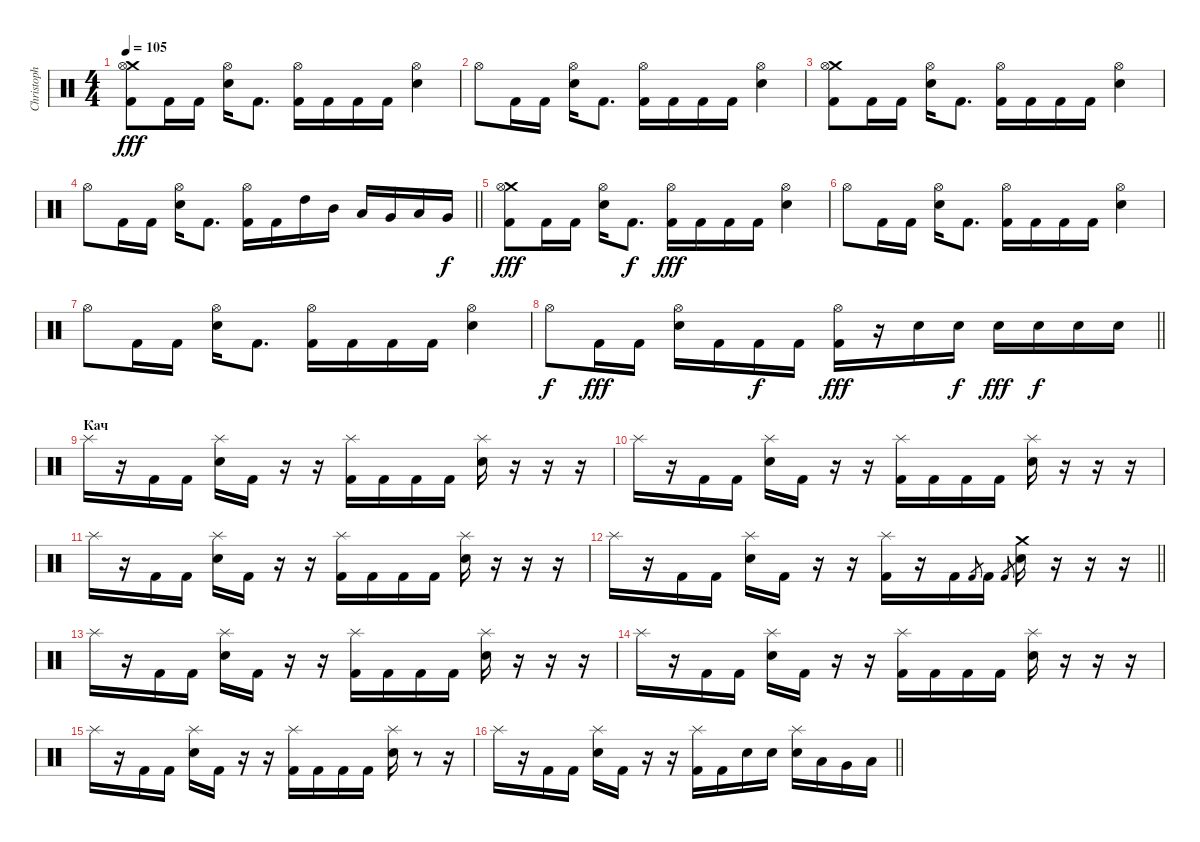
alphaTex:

\track ("Christoph Schneider" "Christoph ") {instrument percussion}
\staff {score}
\articulation defaults
\ts (4 4)
\tempo 105
\clef neutral
\ks c
("Crash medium (hit)" "Kick (hit) 2" "Hi-Hat (open)").8{dy fff} "Kick (hit) 2".16 "Kick (hit) 2".16 ("Hi-Hat (open)" "Electric Snare (hit)").16 "Kick (hit) 2".8{d} ("Hi-Hat (open)" "Kick (hit) 2").16 "Kick (hit) 2".16 "Kick (hit) 2".16 "Kick (hit) 2".16 ("Hi-Hat (open)" "Electric Snare (hit)").4 |
"Hi-Hat (open)".8 "Kick (hit) 2".16 "Kick (hit) 2".16 ("Hi-Hat (open)" "Electric Snare (hit)").16 "Kick (hit) 2".8{d} ("Hi-Hat (open)" "Kick (hit) 2").16 "Kick (hit) 2".16 "Kick (hit) 2".16 "Kick (hit) 2".16 ("Hi-Hat (open)" "Electric Snare (hit)").4 |
("Crash medium (hit)" "Kick (hit) 2" "Hi-Hat (open)").8 "Kick (hit) 2".16 "Kick (hit) 2".16 ("Hi-Hat (open)" "Electric Snare (hit)").16 "Kick (hit) 2".8{d} ("Hi-Hat (open)" "Kick (hit) 2").16 "Kick (hit) 2".16 "Kick (hit) 2".16 "Kick (hit) 2".16 ("Hi-Hat (open)" "Electric Snare (hit)").4 |
\barLineRight lightlight "Hi-Hat (open)".8 "Kick (hit) 2".16 "Kick (hit) 2".16
("Hi-Hat (open)" "Electric Snare (hit)").16 "Kick (hit) 2".8{d} ("Hi-Hat (open)" "Kick (hit) 2").16 "Kick (hit) 2".16 "High Tom (hit)".16 "Mid Tom (hit)".16 "Low Tom (hit)".16 "Very Low Tom (hit)".16 "Low Floor Tom (hit)".16 "Very Low Tom (hit)".16{dy f} |
("Crash medium (hit)" "Kick (hit) 2" "Hi-Hat (open)").8{dy fff} "Kick (hit) 2".16 "Kick (hit) 2".16 ("Hi-Hat (open)" "Electric Snare (hit)").16 "Kick (hit) 2".8{d dy f} ("Hi-Hat (open)" "Kick (hit) 2").16{dy fff} "Kick (hit) 2".16 "Kick (hit) 2".16 "Kick (hit) 2".16 ("Hi-Hat (open)" "Electric Snare (hit)").4 |
"Hi-Hat (open)".8 "Kick (hit) 2".16 "Kick (hit) 2".16 ("Hi-Hat (open)" "Electric Snare (hit)").16 "Kick (hit) 2".8{d} ("Hi-Hat (open)" "Kick (hit) 2").16 "Kick (hit) 2".16 "Kick (hit) 2".16 "Kick (hit) 2".16 ("Hi-Hat (open)" "Electric Snare (hit)").4 |
"Hi-Hat (open)".8 "Kick (hit) 2".16 "Kick (hit) 2".16 ("Hi-Hat (open)" "Electric Snare (hit)").16 "Kick (hit) 2".8{d} ("Hi-Hat (open)" "Kick (hit) 2").16 "Kick (hit) 2".16 "Kick (hit) 2".16 "Kick (hit) 2".16 ("Hi-Hat (open)" "Electric Snare (hit)").4 |
\barLineRight lightlight "Hi-Hat (open)".8{dy f} "Kick (hit) 2".16{dy fff} "Kick (hit) 2".16
("Hi-Hat (open)" "Electric Snare (hit)").16 "Kick (hit) 2".16 "Kick (hit) 2".16{dy f} "Kick (hit) 2".16 ("Hi-Hat (open)" "Kick (hit) 2").16{dy fff} r.16 "Electric Snare (hit)".16 "Electric Snare (hit)".16{dy f} "Electric Snare (hit)".16{dy fff} "Electric Snare (hit)".16{dy f} "Electric Snare (hit)".16 "Electric Snare (hit)".16 |
\section ("" "Кач")
"Splash (hit)".16 r.16 "Kick (hit) 2".16 "Kick (hit) 2".16 ("Splash (hit)" "Electric Snare (hit)").16 "Kick (hit) 2".16 r.16 r.16 ("Splash (hit)" "Kick (hit) 2").16 "Kick (hit) 2".16 "Kick (hit) 2".16 "Kick (hit) 2".16 ("Splash (hit)" "Electric Snare (hit)").16 r.16 r.16 r.16 |
"Splash (hit)".16 r.16 "Kick (hit) 2".16 "Kick (hit) 2".16 ("Splash (hit)" "Electric Snare (hit)").16 "Kick (hit) 2".16 r.16 r.16 ("Splash (hit)" "Kick (hit) 2").16 "Kick (hit) 2".16 "Kick (hit) 2".16 "Kick (hit) 2".16 ("Splash (hit)" "Electric Snare (hit)").16 r.16 r.16 r.16 |
"Splash (hit)".16 r.16 "Kick (hit) 2".16 "Kick (hit) 2".16 ("Splash (hit)" "Electric Snare (hit)").16 "Kick (hit) 2".16 r.16 r.16 ("Splash (hit)" "Kick (hit) 2").16 "Kick (hit) 2".16 "Kick (hit) 2".16 "Kick (hit) 2".16 ("Splash (hit)" "Electric Snare (hit)").16 r.16 r.16 r.16 |
\barLineRight lightlight "Splash (hit)".16
r.16 "Kick (hit) 2".16 "Kick (hit) 2".16 ("Splash (hit)" "Electric Snare (hit)").16 "Kick (hit) 2".16 r.16 r.16 ("Splash (hit)" "Kick (hit) 2").16 r.16 "Kick (hit) 2".16 "Kick (hit) 2".8{gr} "Kick (hit) 2".16 "Kick (hit) 2".8{gr} ("Crash medium (hit)" "Electric Snare (hit)").16 r.16 r.16 r.16 |
"Splash (hit)".16 r.16 "Kick (hit) 2".16 "Kick (hit) 2".16 ("Splash (hit)" "Electric Snare (hit)").16 "Kick (hit) 2".16 r.16 r.16 ("Splash (hit)" "Kick (hit) 2").16 "Kick (hit) 2".16 "Kick (hit) 2".16 "Kick (hit) 2".16 ("Splash (hit)" "Electric Snare (hit)").16 r.16 r.16 r.16 |
"Splash (hit)".16 r.16 "Kick (hit) 2".16 "Kick (hit) 2".16 ("Splash (hit)" "Electric Snare (hit)").16 "Kick (hit) 2".16 r.16 r.16 ("Splash (hit)" "Kick (hit) 2").16 "Kick (hit) 2".16 "Kick (hit) 2".16 "Kick (hit) 2".16 ("Splash (hit)" "Electric Snare (hit)").16 r.16 r.16 r.16 |
"Splash (hit)".16 r.16 "Kick (hit) 2".16 "Kick (hit) 2".16 ("Splash (hit)" "Electric Snare (hit)").16 "Kick (hit) 2".16 r.16 r.16 ("Splash (hit)" "Kick (hit) 2").16 "Kick (hit) 2".16 "Kick (hit) 2".16 "Kick (hit) 2".16 ("Splash (hit)" "Electric Snare (hit)").16 r.8 r.16 |
\barLineRight lightlight "Splash (hit)".16
r.16 "Kick (hit) 2".16 "Kick (hit) 2".16 ("Splash (hit)" "Electric Snare (hit)").16 "Kick (hit) 2".16 r.16 r.16 ("Splash (hit)" "Kick (hit) 2").16 "Kick (hit) 2".16 "Electric Snare (hit)".16 "Electric Snare (hit)".16 ("Splash (hit)" "Electric Snare (hit)").16 "Low Tom (hit)".16 "Very Low Tom (hit)".16 "Low Floor Tom (hit)".16
